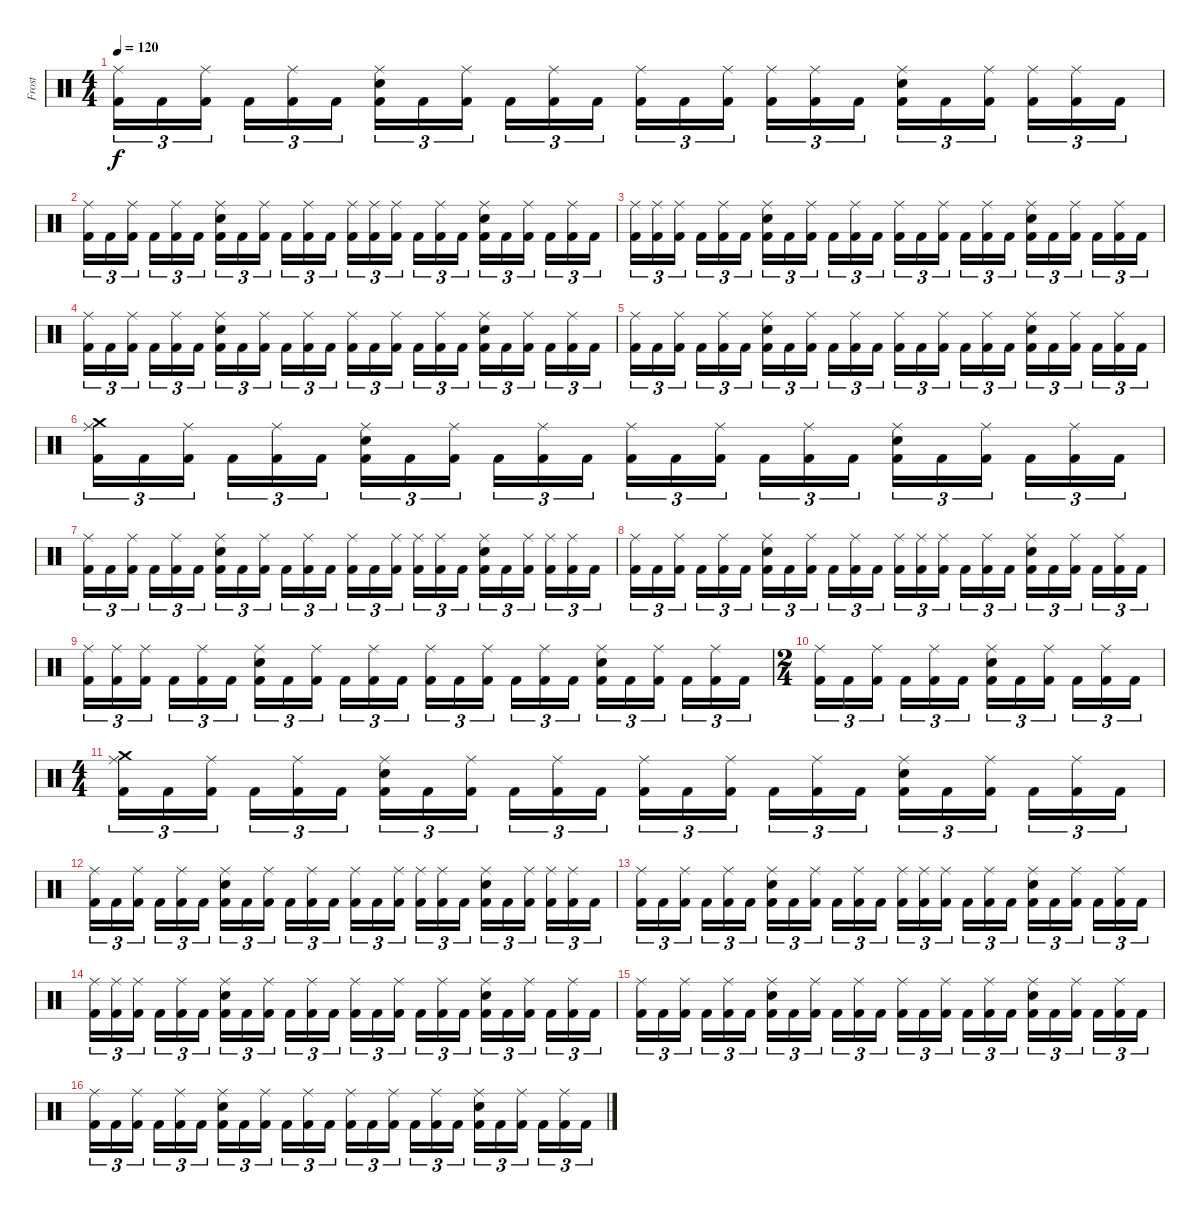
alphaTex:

\track ("Frost" "Frost") {instrument percussion}
\staff {score}
\articulation defaults
\ts (4 4)
\tempo 120
\clef neutral
\ks c
("Kick (hit) 2" "Ride (middle)").16{tu (3 2) dy f} "Kick (hit) 2".16{tu (3 2)} ("Kick (hit) 2" "Ride (middle)").16{tu (3 2)} "Kick (hit) 2".16{tu (3 2)} ("Kick (hit) 2" "Ride (middle)").16{tu (3 2)} "Kick (hit) 2".16{tu (3 2)} ("Kick (hit) 2" "Electric Snare (hit)" "Ride (middle)").16{tu (3 2)} "Kick (hit) 2".16{tu (3 2)} ("Kick (hit) 2" "Ride (middle)").16{tu (3 2)} "Kick (hit) 2".16{tu (3 2)} ("Kick (hit) 2" "Ride (middle)").16{tu (3 2)} "Kick (hit) 2".16{tu (3 2)} ("Kick (hit) 2" "Ride (middle)").16{tu (3 2)} "Kick (hit) 2".16{tu (3 2)} ("Kick (hit) 2" "Ride (middle)").16{tu (3 2)} ("Kick (hit) 2" "Ride (middle)").16{tu (3 2)} ("Kick (hit) 2" "Ride (middle)").16{tu (3 2)} "Kick (hit) 2".16{tu (3 2)} ("Kick (hit) 2" "Electric Snare (hit)" "Ride (middle)").16{tu (3 2)} "Kick (hit) 2".16{tu (3 2)} ("Kick (hit) 2" "Ride (middle)").16{tu (3 2)} ("Kick (hit) 2" "Ride (middle)").16{tu (3 2)} ("Kick (hit) 2" "Ride (middle)").16{tu (3 2)} "Kick (hit) 2".16{tu (3 2)} |
("Kick (hit) 2" "Ride (middle)").16{tu (3 2)} "Kick (hit) 2".16{tu (3 2)} ("Kick (hit) 2" "Ride (middle)").16{tu (3 2)} "Kick (hit) 2".16{tu (3 2)} ("Kick (hit) 2" "Ride (middle)").16{tu (3 2)} "Kick (hit) 2".16{tu (3 2)} ("Kick (hit) 2" "Electric Snare (hit)" "Ride (middle)").16{tu (3 2)} "Kick (hit) 2".16{tu (3 2)} ("Kick (hit) 2" "Ride (middle)").16{tu (3 2)} "Kick (hit) 2".16{tu (3 2)} ("Kick (hit) 2" "Ride (middle)").16{tu (3 2)} "Kick (hit) 2".16{tu (3 2)} ("Kick (hit) 2" "Ride (middle)").16{tu (3 2)} ("Kick (hit) 2" "Ride (middle)").16{tu (3 2)} ("Kick (hit) 2" "Ride (middle)").16{tu (3 2)} "Kick (hit) 2".16{tu (3 2)} ("Kick (hit) 2" "Ride (middle)").16{tu (3 2)} "Kick (hit) 2".16{tu (3 2)} ("Kick (hit) 2" "Electric Snare (hit)" "Ride (middle)").16{tu (3 2)} "Kick (hit) 2".16{tu (3 2)} ("Kick (hit) 2" "Ride (middle)").16{tu (3 2)} "Kick (hit) 2".16{tu (3 2)} ("Kick (hit) 2" "Ride (middle)").16{tu (3 2)} "Kick (hit) 2".16{tu (3 2)} |
("Kick (hit) 2" "Ride (middle)").16{tu (3 2)} ("Kick (hit) 2" "Ride (middle)").16{tu (3 2)} ("Kick (hit) 2" "Ride (middle)").16{tu (3 2)} "Kick (hit) 2".16{tu (3 2)} ("Kick (hit) 2" "Ride (middle)").16{tu (3 2)} "Kick (hit) 2".16{tu (3 2)} ("Kick (hit) 2" "Electric Snare (hit)" "Ride (middle)").16{tu (3 2)} "Kick (hit) 2".16{tu (3 2)} ("Kick (hit) 2" "Ride (middle)").16{tu (3 2)} "Kick (hit) 2".16{tu (3 2)} ("Kick (hit) 2" "Ride (middle)").16{tu (3 2)} "Kick (hit) 2".16{tu (3 2)} ("Kick (hit) 2" "Ride (middle)").16{tu (3 2)} "Kick (hit) 2".16{tu (3 2)} ("Kick (hit) 2" "Ride (middle)").16{tu (3 2)} "Kick (hit) 2".16{tu (3 2)} ("Kick (hit) 2" "Ride (middle)").16{tu (3 2)} "Kick (hit) 2".16{tu (3 2)} ("Kick (hit) 2" "Electric Snare (hit)" "Ride (middle)").16{tu (3 2)} "Kick (hit) 2".16{tu (3 2)} ("Kick (hit) 2" "Ride (middle)").16{tu (3 2)} "Kick (hit) 2".16{tu (3 2)} ("Kick (hit) 2" "Ride (middle)").16{tu (3 2)} "Kick (hit) 2".16{tu (3 2)} |
("Kick (hit) 2" "Ride (middle)").16{tu (3 2)} "Kick (hit) 2".16{tu (3 2)} ("Kick (hit) 2" "Ride (middle)").16{tu (3 2)} "Kick (hit) 2".16{tu (3 2)} ("Kick (hit) 2" "Ride (middle)").16{tu (3 2)} "Kick (hit) 2".16{tu (3 2)} ("Kick (hit) 2" "Electric Snare (hit)" "Ride (middle)").16{tu (3 2)} "Kick (hit) 2".16{tu (3 2)} ("Kick (hit) 2" "Ride (middle)").16{tu (3 2)} "Kick (hit) 2".16{tu (3 2)} ("Kick (hit) 2" "Ride (middle)").16{tu (3 2)} "Kick (hit) 2".16{tu (3 2)} ("Kick (hit) 2" "Ride (middle)").16{tu (3 2)} "Kick (hit) 2".16{tu (3 2)} ("Kick (hit) 2" "Ride (middle)").16{tu (3 2)} "Kick (hit) 2".16{tu (3 2)} ("Kick (hit) 2" "Ride (middle)").16{tu (3 2)} "Kick (hit) 2".16{tu (3 2)} ("Kick (hit) 2" "Electric Snare (hit)" "Ride (middle)").16{tu (3 2)} "Kick (hit) 2".16{tu (3 2)} ("Kick (hit) 2" "Ride (middle)").16{tu (3 2)} "Kick (hit) 2".16{tu (3 2)} ("Kick (hit) 2" "Ride (middle)").16{tu (3 2)} "Kick (hit) 2".16{tu (3 2)} |
("Kick (hit) 2" "Ride (middle)").16{tu (3 2)} "Kick (hit) 2".16{tu (3 2)} ("Kick (hit) 2" "Ride (middle)").16{tu (3 2)} "Kick (hit) 2".16{tu (3 2)} ("Kick (hit) 2" "Ride (middle)").16{tu (3 2)} "Kick (hit) 2".16{tu (3 2)} ("Kick (hit) 2" "Electric Snare (hit)" "Ride (middle)").16{tu (3 2)} "Kick (hit) 2".16{tu (3 2)} ("Kick (hit) 2" "Ride (middle)").16{tu (3 2)} "Kick (hit) 2".16{tu (3 2)} ("Kick (hit) 2" "Ride (middle)").16{tu (3 2)} "Kick (hit) 2".16{tu (3 2)} ("Kick (hit) 2" "Ride (middle)").16{tu (3 2)} "Kick (hit) 2".16{tu (3 2)} ("Kick (hit) 2" "Ride (middle)").16{tu (3 2)} "Kick (hit) 2".16{tu (3 2)} ("Kick (hit) 2" "Ride (middle)").16{tu (3 2)} "Kick (hit) 2".16{tu (3 2)} ("Kick (hit) 2" "Electric Snare (hit)" "Ride (middle)").16{tu (3 2)} "Kick (hit) 2".16{tu (3 2)} ("Kick (hit) 2" "Ride (middle)").16{tu (3 2)} "Kick (hit) 2".16{tu (3 2)} ("Kick (hit) 2" "Ride (middle)").16{tu (3 2)} "Kick (hit) 2".16{tu (3 2)} |
("Kick (hit) 2" "Crash medium (hit)" "Ride (middle)").16{tu (3 2)} "Kick (hit) 2".16{tu (3 2)} ("Kick (hit) 2" "Ride (middle)").16{tu (3 2)} "Kick (hit) 2".16{tu (3 2)} ("Kick (hit) 2" "Ride (middle)").16{tu (3 2)} "Kick (hit) 2".16{tu (3 2)} ("Kick (hit) 2" "Electric Snare (hit)" "Ride (middle)").16{tu (3 2)} "Kick (hit) 2".16{tu (3 2)} ("Kick (hit) 2" "Ride (middle)").16{tu (3 2)} "Kick (hit) 2".16{tu (3 2)} ("Kick (hit) 2" "Ride (middle)").16{tu (3 2)} "Kick (hit) 2".16{tu (3 2)} ("Kick (hit) 2" "Ride (middle)").16{tu (3 2)} "Kick (hit) 2".16{tu (3 2)} ("Kick (hit) 2" "Ride (middle)").16{tu (3 2)} "Kick (hit) 2".16{tu (3 2)} ("Kick (hit) 2" "Ride (middle)").16{tu (3 2)} "Kick (hit) 2".16{tu (3 2)} ("Kick (hit) 2" "Electric Snare (hit)" "Ride (middle)").16{tu (3 2)} "Kick (hit) 2".16{tu (3 2)} ("Kick (hit) 2" "Ride (middle)").16{tu (3 2)} "Kick (hit) 2".16{tu (3 2)} ("Kick (hit) 2" "Ride (middle)").16{tu (3 2)} "Kick (hit) 2".16{tu (3 2)} |
("Kick (hit) 2" "Ride (middle)").16{tu (3 2)} "Kick (hit) 2".16{tu (3 2)} ("Kick (hit) 2" "Ride (middle)").16{tu (3 2)} "Kick (hit) 2".16{tu (3 2)} ("Kick (hit) 2" "Ride (middle)").16{tu (3 2)} "Kick (hit) 2".16{tu (3 2)} ("Kick (hit) 2" "Electric Snare (hit)" "Ride (middle)").16{tu (3 2)} "Kick (hit) 2".16{tu (3 2)} ("Kick (hit) 2" "Ride (middle)").16{tu (3 2)} "Kick (hit) 2".16{tu (3 2)} ("Kick (hit) 2" "Ride (middle)").16{tu (3 2)} "Kick (hit) 2".16{tu (3 2)} ("Kick (hit) 2" "Ride (middle)").16{tu (3 2)} "Kick (hit) 2".16{tu (3 2)} ("Kick (hit) 2" "Ride (middle)").16{tu (3 2)} ("Kick (hit) 2" "Ride (middle)").16{tu (3 2)} ("Kick (hit) 2" "Ride (middle)").16{tu (3 2)} "Kick (hit) 2".16{tu (3 2)} ("Kick (hit) 2" "Electric Snare (hit)" "Ride (middle)").16{tu (3 2)} "Kick (hit) 2".16{tu (3 2)} ("Kick (hit) 2" "Ride (middle)").16{tu (3 2)} ("Kick (hit) 2" "Ride (middle)").16{tu (3 2)} ("Kick (hit) 2" "Ride (middle)").16{tu (3 2)} "Kick (hit) 2".16{tu (3 2)} |
("Kick (hit) 2" "Ride (middle)").16{tu (3 2)} "Kick (hit) 2".16{tu (3 2)} ("Kick (hit) 2" "Ride (middle)").16{tu (3 2)} "Kick (hit) 2".16{tu (3 2)} ("Kick (hit) 2" "Ride (middle)").16{tu (3 2)} "Kick (hit) 2".16{tu (3 2)} ("Kick (hit) 2" "Electric Snare (hit)" "Ride (middle)").16{tu (3 2)} "Kick (hit) 2".16{tu (3 2)} ("Kick (hit) 2" "Ride (middle)").16{tu (3 2)} "Kick (hit) 2".16{tu (3 2)} ("Kick (hit) 2" "Ride (middle)").16{tu (3 2)} "Kick (hit) 2".16{tu (3 2)} ("Kick (hit) 2" "Ride (middle)").16{tu (3 2)} ("Kick (hit) 2" "Ride (middle)").16{tu (3 2)} ("Kick (hit) 2" "Ride (middle)").16{tu (3 2)} "Kick (hit) 2".16{tu (3 2)} ("Kick (hit) 2" "Ride (middle)").16{tu (3 2)} "Kick (hit) 2".16{tu (3 2)} ("Kick (hit) 2" "Electric Snare (hit)" "Ride (middle)").16{tu (3 2)} "Kick (hit) 2".16{tu (3 2)} ("Kick (hit) 2" "Ride (middle)").16{tu (3 2)} "Kick (hit) 2".16{tu (3 2)} ("Kick (hit) 2" "Ride (middle)").16{tu (3 2)} "Kick (hit) 2".16{tu (3 2)} |
("Kick (hit) 2" "Ride (middle)").16{tu (3 2)} ("Kick (hit) 2" "Ride (middle)").16{tu (3 2)} ("Kick (hit) 2" "Ride (middle)").16{tu (3 2)} "Kick (hit) 2".16{tu (3 2)} ("Kick (hit) 2" "Ride (middle)").16{tu (3 2)} "Kick (hit) 2".16{tu (3 2)} ("Kick (hit) 2" "Electric Snare (hit)" "Ride (middle)").16{tu (3 2)} "Kick (hit) 2".16{tu (3 2)} ("Kick (hit) 2" "Ride (middle)").16{tu (3 2)} "Kick (hit) 2".16{tu (3 2)} ("Kick (hit) 2" "Ride (middle)").16{tu (3 2)} "Kick (hit) 2".16{tu (3 2)} ("Kick (hit) 2" "Ride (middle)").16{tu (3 2)} "Kick (hit) 2".16{tu (3 2)} ("Kick (hit) 2" "Ride (middle)").16{tu (3 2)} "Kick (hit) 2".16{tu (3 2)} ("Kick (hit) 2" "Ride (middle)").16{tu (3 2)} "Kick (hit) 2".16{tu (3 2)} ("Kick (hit) 2" "Electric Snare (hit)" "Ride (middle)").16{tu (3 2)} "Kick (hit) 2".16{tu (3 2)} ("Kick (hit) 2" "Ride (middle)").16{tu (3 2)} "Kick (hit) 2".16{tu (3 2)} ("Kick (hit) 2" "Ride (middle)").16{tu (3 2)} "Kick (hit) 2".16{tu (3 2)} |
\ts (2 4)
("Kick (hit) 2" "Ride (middle)").16{tu (3 2)} "Kick (hit) 2".16{tu (3 2)} ("Kick (hit) 2" "Ride (middle)").16{tu (3 2)} "Kick (hit) 2".16{tu (3 2)} ("Kick (hit) 2" "Ride (middle)").16{tu (3 2)} "Kick (hit) 2".16{tu (3 2)} ("Kick (hit) 2" "Electric Snare (hit)" "Ride (middle)").16{tu (3 2)} "Kick (hit) 2".16{tu (3 2)} ("Kick (hit) 2" "Ride (middle)").16{tu (3 2)} "Kick (hit) 2".16{tu (3 2)} ("Kick (hit) 2" "Ride (middle)").16{tu (3 2)} "Kick (hit) 2".16{tu (3 2)} |
\ts (4 4)
("Kick (hit) 2" "Crash medium (hit)" "Ride (middle)").16{tu (3 2)} "Kick (hit) 2".16{tu (3 2)} ("Kick (hit) 2" "Ride (middle)").16{tu (3 2)} "Kick (hit) 2".16{tu (3 2)} ("Kick (hit) 2" "Ride (middle)").16{tu (3 2)} "Kick (hit) 2".16{tu (3 2)} ("Kick (hit) 2" "Electric Snare (hit)" "Ride (middle)").16{tu (3 2)} "Kick (hit) 2".16{tu (3 2)} ("Kick (hit) 2" "Ride (middle)").16{tu (3 2)} "Kick (hit) 2".16{tu (3 2)} ("Kick (hit) 2" "Ride (middle)").16{tu (3 2)} "Kick (hit) 2".16{tu (3 2)} ("Kick (hit) 2" "Ride (middle)").16{tu (3 2)} "Kick (hit) 2".16{tu (3 2)} ("Kick (hit) 2" "Ride (middle)").16{tu (3 2)} "Kick (hit) 2".16{tu (3 2)} ("Kick (hit) 2" "Ride (middle)").16{tu (3 2)} "Kick (hit) 2".16{tu (3 2)} ("Kick (hit) 2" "Electric Snare (hit)" "Ride (middle)").16{tu (3 2)} "Kick (hit) 2".16{tu (3 2)} ("Kick (hit) 2" "Ride (middle)").16{tu (3 2)} "Kick (hit) 2".16{tu (3 2)} ("Kick (hit) 2" "Ride (middle)").16{tu (3 2)} "Kick (hit) 2".16{tu (3 2)} |
("Kick (hit) 2" "Ride (middle)").16{tu (3 2)} "Kick (hit) 2".16{tu (3 2)} ("Kick (hit) 2" "Ride (middle)").16{tu (3 2)} "Kick (hit) 2".16{tu (3 2)} ("Kick (hit) 2" "Ride (middle)").16{tu (3 2)} "Kick (hit) 2".16{tu (3 2)} ("Kick (hit) 2" "Electric Snare (hit)" "Ride (middle)").16{tu (3 2)} "Kick (hit) 2".16{tu (3 2)} ("Kick (hit) 2" "Ride (middle)").16{tu (3 2)} "Kick (hit) 2".16{tu (3 2)} ("Kick (hit) 2" "Ride (middle)").16{tu (3 2)} "Kick (hit) 2".16{tu (3 2)} ("Kick (hit) 2" "Ride (middle)").16{tu (3 2)} "Kick (hit) 2".16{tu (3 2)} ("Kick (hit) 2" "Ride (middle)").16{tu (3 2)} ("Kick (hit) 2" "Ride (middle)").16{tu (3 2)} ("Kick (hit) 2" "Ride (middle)").16{tu (3 2)} "Kick (hit) 2".16{tu (3 2)} ("Kick (hit) 2" "Electric Snare (hit)" "Ride (middle)").16{tu (3 2)} "Kick (hit) 2".16{tu (3 2)} ("Kick (hit) 2" "Ride (middle)").16{tu (3 2)} ("Kick (hit) 2" "Ride (middle)").16{tu (3 2)} ("Kick (hit) 2" "Ride (middle)").16{tu (3 2)} "Kick (hit) 2".16{tu (3 2)} |
("Kick (hit) 2" "Ride (middle)").16{tu (3 2)} "Kick (hit) 2".16{tu (3 2)} ("Kick (hit) 2" "Ride (middle)").16{tu (3 2)} "Kick (hit) 2".16{tu (3 2)} ("Kick (hit) 2" "Ride (middle)").16{tu (3 2)} "Kick (hit) 2".16{tu (3 2)} ("Kick (hit) 2" "Electric Snare (hit)" "Ride (middle)").16{tu (3 2)} "Kick (hit) 2".16{tu (3 2)} ("Kick (hit) 2" "Ride (middle)").16{tu (3 2)} "Kick (hit) 2".16{tu (3 2)} ("Kick (hit) 2" "Ride (middle)").16{tu (3 2)} "Kick (hit) 2".16{tu (3 2)} ("Kick (hit) 2" "Ride (middle)").16{tu (3 2)} ("Kick (hit) 2" "Ride (middle)").16{tu (3 2)} ("Kick (hit) 2" "Ride (middle)").16{tu (3 2)} "Kick (hit) 2".16{tu (3 2)} ("Kick (hit) 2" "Ride (middle)").16{tu (3 2)} "Kick (hit) 2".16{tu (3 2)} ("Kick (hit) 2" "Electric Snare (hit)" "Ride (middle)").16{tu (3 2)} "Kick (hit) 2".16{tu (3 2)} ("Kick (hit) 2" "Ride (middle)").16{tu (3 2)} "Kick (hit) 2".16{tu (3 2)} ("Kick (hit) 2" "Ride (middle)").16{tu (3 2)} "Kick (hit) 2".16{tu (3 2)} |
("Kick (hit) 2" "Ride (middle)").16{tu (3 2)} ("Kick (hit) 2" "Ride (middle)").16{tu (3 2)} ("Kick (hit) 2" "Ride (middle)").16{tu (3 2)} "Kick (hit) 2".16{tu (3 2)} ("Kick (hit) 2" "Ride (middle)").16{tu (3 2)} "Kick (hit) 2".16{tu (3 2)} ("Kick (hit) 2" "Electric Snare (hit)" "Ride (middle)").16{tu (3 2)} "Kick (hit) 2".16{tu (3 2)} ("Kick (hit) 2" "Ride (middle)").16{tu (3 2)} "Kick (hit) 2".16{tu (3 2)} ("Kick (hit) 2" "Ride (middle)").16{tu (3 2)} "Kick (hit) 2".16{tu (3 2)} ("Kick (hit) 2" "Ride (middle)").16{tu (3 2)} "Kick (hit) 2".16{tu (3 2)} ("Kick (hit) 2" "Ride (middle)").16{tu (3 2)} "Kick (hit) 2".16{tu (3 2)} ("Kick (hit) 2" "Ride (middle)").16{tu (3 2)} "Kick (hit) 2".16{tu (3 2)} ("Kick (hit) 2" "Electric Snare (hit)" "Ride (middle)").16{tu (3 2)} "Kick (hit) 2".16{tu (3 2)} ("Kick (hit) 2" "Ride (middle)").16{tu (3 2)} "Kick (hit) 2".16{tu (3 2)} ("Kick (hit) 2" "Ride (middle)").16{tu (3 2)} "Kick (hit) 2".16{tu (3 2)} |
("Kick (hit) 2" "Ride (middle)").16{tu (3 2)} "Kick (hit) 2".16{tu (3 2)} ("Kick (hit) 2" "Ride (middle)").16{tu (3 2)} "Kick (hit) 2".16{tu (3 2)} ("Kick (hit) 2" "Ride (middle)").16{tu (3 2)} "Kick (hit) 2".16{tu (3 2)} ("Kick (hit) 2" "Electric Snare (hit)" "Ride (middle)").16{tu (3 2)} "Kick (hit) 2".16{tu (3 2)} ("Kick (hit) 2" "Ride (middle)").16{tu (3 2)} "Kick (hit) 2".16{tu (3 2)} ("Kick (hit) 2" "Ride (middle)").16{tu (3 2)} "Kick (hit) 2".16{tu (3 2)} ("Kick (hit) 2" "Ride (middle)").16{tu (3 2)} "Kick (hit) 2".16{tu (3 2)} ("Kick (hit) 2" "Ride (middle)").16{tu (3 2)} "Kick (hit) 2".16{tu (3 2)} ("Kick (hit) 2" "Ride (middle)").16{tu (3 2)} "Kick (hit) 2".16{tu (3 2)} ("Kick (hit) 2" "Electric Snare (hit)" "Ride (middle)").16{tu (3 2)} "Kick (hit) 2".16{tu (3 2)} ("Kick (hit) 2" "Ride (middle)").16{tu (3 2)} "Kick (hit) 2".16{tu (3 2)} ("Kick (hit) 2" "Ride (middle)").16{tu (3 2)} "Kick (hit) 2".16{tu (3 2)} |
("Kick (hit) 2" "Ride (middle)").16{tu (3 2)} "Kick (hit) 2".16{tu (3 2)} ("Kick (hit) 2" "Ride (middle)").16{tu (3 2)} "Kick (hit) 2".16{tu (3 2)} ("Kick (hit) 2" "Ride (middle)").16{tu (3 2)} "Kick (hit) 2".16{tu (3 2)} ("Kick (hit) 2" "Electric Snare (hit)" "Ride (middle)").16{tu (3 2)} "Kick (hit) 2".16{tu (3 2)} ("Kick (hit) 2" "Ride (middle)").16{tu (3 2)} "Kick (hit) 2".16{tu (3 2)} ("Kick (hit) 2" "Ride (middle)").16{tu (3 2)} "Kick (hit) 2".16{tu (3 2)} ("Kick (hit) 2" "Ride (middle)").16{tu (3 2)} "Kick (hit) 2".16{tu (3 2)} ("Kick (hit) 2" "Ride (middle)").16{tu (3 2)} "Kick (hit) 2".16{tu (3 2)} ("Kick (hit) 2" "Ride (middle)").16{tu (3 2)} "Kick (hit) 2".16{tu (3 2)} ("Kick (hit) 2" "Electric Snare (hit)" "Ride (middle)").16{tu (3 2)} "Kick (hit) 2".16{tu (3 2)} ("Kick (hit) 2" "Ride (middle)").16{tu (3 2)} "Kick (hit) 2".16{tu (3 2)} ("Kick (hit) 2" "Ride (middle)").16{tu (3 2)} "Kick (hit) 2".16{tu (3 2)}
